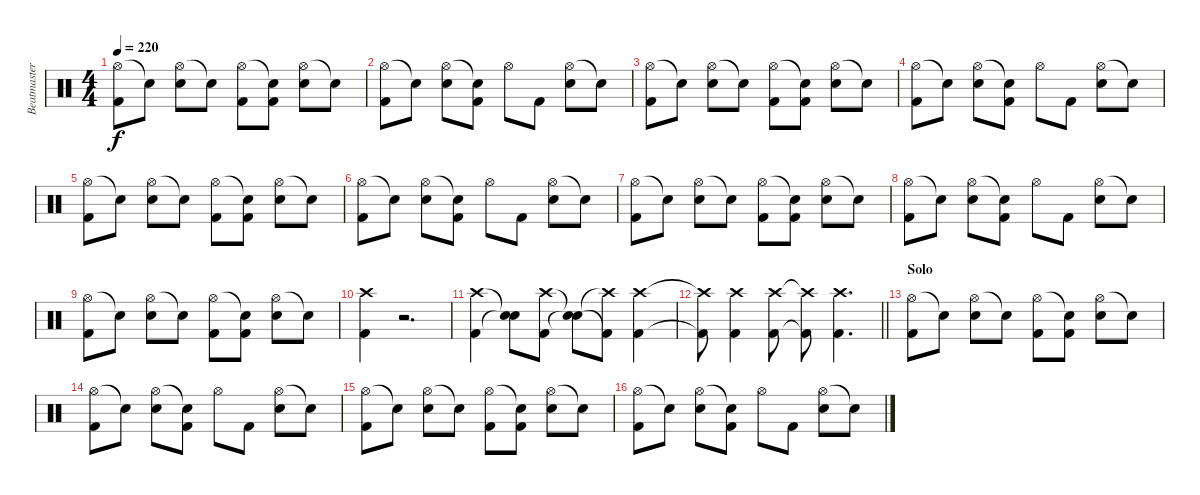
\track ("Beatmaster V" "Beatmaster") {instrument percussion}
\staff {score}
\articulation defaults
\ts (4 4)
\tempo 220
\clef neutral
\ks c
("Hi-Hat (open)" "Kick (hit) 2").8{dy f} "Snare (hit)"{t}.8 ("Hi-Hat (open)" "Snare (hit) 2").8 "Snare (hit)"{t}.8 ("Hi-Hat (open)" "Kick (hit) 2").8 ("Snare (hit)"{t} "Kick (hit) 2").8 ("Hi-Hat (open)" "Snare (hit) 2").8 "Snare (hit)"{t}.8 |
("Hi-Hat (open)" "Kick (hit) 2").8 "Snare (hit)"{t}.8 ("Hi-Hat (open)" "Snare (hit) 2").8 ("Snare (hit)"{t} "Kick (hit) 2").8 "Hi-Hat (open)".8 "Kick (hit) 2".8 ("Hi-Hat (open)" "Snare (hit) 2").8 "Snare (hit)"{t}.8 |
("Hi-Hat (open)" "Kick (hit) 2").8 "Snare (hit)"{t}.8 ("Hi-Hat (open)" "Snare (hit) 2").8 "Snare (hit)"{t}.8 ("Hi-Hat (open)" "Kick (hit) 2").8 ("Snare (hit)"{t} "Kick (hit) 2").8 ("Hi-Hat (open)" "Snare (hit) 2").8 "Snare (hit)"{t}.8 |
("Hi-Hat (open)" "Kick (hit) 2").8 "Snare (hit)"{t}.8 ("Hi-Hat (open)" "Snare (hit) 2").8 ("Snare (hit)"{t} "Kick (hit) 2").8 "Hi-Hat (open)".8 "Kick (hit) 2".8 ("Hi-Hat (open)" "Snare (hit) 2").8 "Snare (hit)"{t}.8 |
("Hi-Hat (open)" "Kick (hit) 2").8 "Snare (hit)"{t}.8 ("Hi-Hat (open)" "Snare (hit) 2").8 "Snare (hit)"{t}.8 ("Hi-Hat (open)" "Kick (hit) 2").8 ("Snare (hit)"{t} "Kick (hit) 2").8 ("Hi-Hat (open)" "Snare (hit) 2").8 "Snare (hit)"{t}.8 |
("Hi-Hat (open)" "Kick (hit) 2").8 "Snare (hit)"{t}.8 ("Hi-Hat (open)" "Snare (hit) 2").8 ("Snare (hit)"{t} "Kick (hit) 2").8 "Hi-Hat (open)".8 "Kick (hit) 2".8 ("Hi-Hat (open)" "Snare (hit) 2").8 "Snare (hit)"{t}.8 |
("Hi-Hat (open)" "Kick (hit) 2").8 "Snare (hit)"{t}.8 ("Hi-Hat (open)" "Snare (hit) 2").8 "Snare (hit)"{t}.8 ("Hi-Hat (open)" "Kick (hit) 2").8 ("Snare (hit)"{t} "Kick (hit) 2").8 ("Hi-Hat (open)" "Snare (hit) 2").8 "Snare (hit)"{t}.8 |
("Hi-Hat (open)" "Kick (hit) 2").8 "Snare (hit)"{t}.8 ("Hi-Hat (open)" "Snare (hit) 2").8 ("Snare (hit)"{t} "Kick (hit) 2").8 "Hi-Hat (open)".8 "Kick (hit) 2".8 ("Hi-Hat (open)" "Snare (hit) 2").8 "Snare (hit)"{t}.8 |
("Hi-Hat (open)" "Kick (hit) 2").8 "Snare (hit)"{t}.8 ("Hi-Hat (open)" "Snare (hit) 2").8 "Snare (hit)"{t}.8 ("Hi-Hat (open)" "Kick (hit) 2").8 ("Snare (hit)"{t} "Kick (hit) 2").8 ("Hi-Hat (open)" "Snare (hit) 2").8 "Snare (hit)"{t}.8 |
("Crash high (hit)" "Kick (hit) 2").4 r.2{d} |
("Crash high (hit)" "Kick (hit) 2").4 ("Snare (hit)"{t} "Snare (hit)"{t}).8 ("Crash high (hit)" "Kick (hit) 2").8 ("Snare (hit)"{t} "Snare (hit)"{t}).8 ("Crash high (hit)"{t} "Kick (hit) 2"{t}).8 ("Crash high (hit)" "Kick (hit) 2").4 |
\barLineRight lightlight
("Crash high (hit)"{t} "Kick (hit) 2"{t}).8 ("Crash high (hit)" "Kick (hit) 2").4 ("Crash high (hit)" "Kick (hit) 2").8 ("Crash high (hit)"{t} "Kick (hit) 2"{t}).8 ("Crash high (hit)" "Kick (hit) 2").4{d} |
\section ("" "Solo")
("Hi-Hat (open)" "Kick (hit) 2").8 "Snare (hit)"{t}.8 ("Hi-Hat (open)" "Snare (hit) 2").8 "Snare (hit)"{t}.8 ("Hi-Hat (open)" "Kick (hit) 2").8 ("Snare (hit)"{t} "Kick (hit) 2").8 ("Hi-Hat (open)" "Snare (hit) 2").8 "Snare (hit)"{t}.8 |
("Hi-Hat (open)" "Kick (hit) 2").8 "Snare (hit)"{t}.8 ("Hi-Hat (open)" "Snare (hit) 2").8 ("Snare (hit)"{t} "Kick (hit) 2").8 "Hi-Hat (open)".8 "Kick (hit) 2".8 ("Hi-Hat (open)" "Snare (hit) 2").8 "Snare (hit)"{t}.8 |
("Hi-Hat (open)" "Kick (hit) 2").8 "Snare (hit)"{t}.8 ("Hi-Hat (open)" "Snare (hit) 2").8 "Snare (hit)"{t}.8 ("Hi-Hat (open)" "Kick (hit) 2").8 ("Snare (hit)"{t} "Kick (hit) 2").8 ("Hi-Hat (open)" "Snare (hit) 2").8 "Snare (hit)"{t}.8 |
("Hi-Hat (open)" "Kick (hit) 2").8 "Snare (hit)"{t}.8 ("Hi-Hat (open)" "Snare (hit) 2").8 ("Snare (hit)"{t} "Kick (hit) 2").8 "Hi-Hat (open)".8 "Kick (hit) 2".8 ("Hi-Hat (open)" "Snare (hit) 2").8 "Snare (hit)"{t}.8
